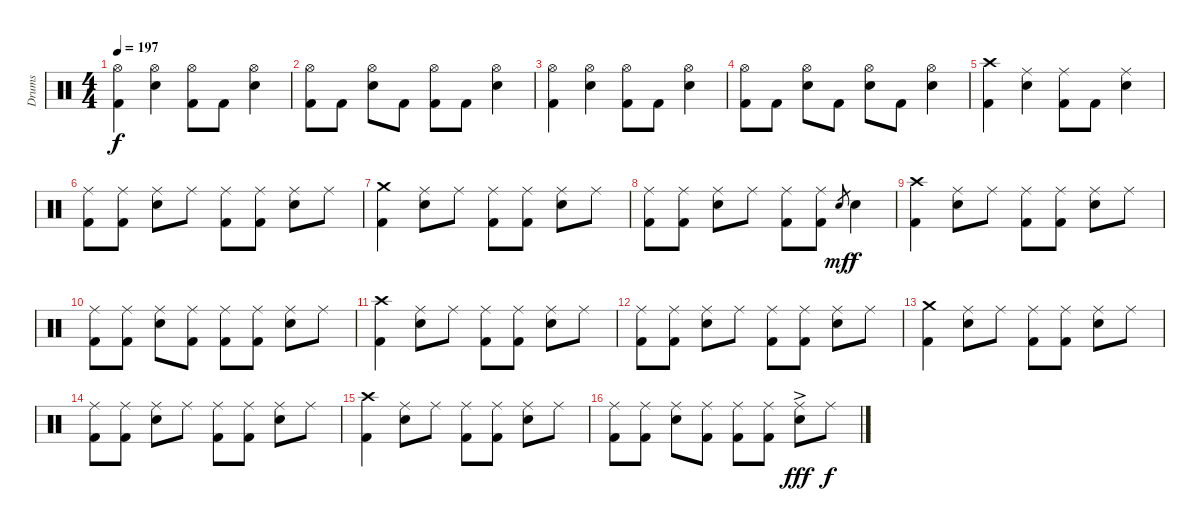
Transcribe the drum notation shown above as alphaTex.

\track ("Drums" "Drums") {instrument percussion}
\staff {score}
\articulation defaults
\ts (4 4)
\tempo 197
\clef neutral
\ks c
("Hi-Hat (open)" "Kick (hit) 2").4{dy f} ("Hi-Hat (open)" "Electric Snare (hit)").4 ("Hi-Hat (open)" "Kick (hit) 2").8 "Kick (hit) 2".8 ("Hi-Hat (open)" "Electric Snare (hit)").4 |
("Hi-Hat (open)" "Kick (hit) 2").8 "Kick (hit) 2".8 ("Hi-Hat (open)" "Electric Snare (hit)").8 "Kick (hit) 2".8 ("Hi-Hat (open)" "Kick (hit) 2").8 "Kick (hit) 2".8 ("Hi-Hat (open)" "Electric Snare (hit)").4 |
("Hi-Hat (open)" "Kick (hit) 2").4 ("Hi-Hat (open)" "Electric Snare (hit)").4 ("Hi-Hat (open)" "Kick (hit) 2").8 "Kick (hit) 2".8 ("Hi-Hat (open)" "Electric Snare (hit)").4 |
("Hi-Hat (open)" "Kick (hit) 2").8 "Kick (hit) 2".8 ("Hi-Hat (open)" "Electric Snare (hit)").8 "Kick (hit) 2".8 ("Hi-Hat (open)" "Electric Snare (hit)").8 "Kick (hit) 2".8 ("Hi-Hat (open)" "Electric Snare (hit)").4 |
("Crash high (hit)" "Kick (hit) 2").4 ("Ride (middle)" "Electric Snare (hit)").4 ("Ride (middle)" "Kick (hit) 2").8 "Kick (hit) 2".8 ("Ride (middle)" "Electric Snare (hit)").4 |
("Ride (middle)" "Kick (hit) 2").8 ("Ride (middle)" "Kick (hit) 2").8 ("Ride (middle)" "Electric Snare (hit)").8 "Ride (middle)".8 ("Ride (middle)" "Kick (hit) 2").8 ("Ride (middle)" "Kick (hit) 2").8 ("Ride (middle)" "Electric Snare (hit)").8 "Ride (middle)".8 |
("Crash medium (hit)" "Kick (hit) 2").4 ("Ride (middle)" "Electric Snare (hit)").8 "Ride (middle)".8 ("Ride (middle)" "Kick (hit) 2").8 ("Ride (middle)" "Kick (hit) 2").8 ("Ride (middle)" "Electric Snare (hit)").8 "Ride (middle)".8 |
("Ride (middle)" "Kick (hit) 2").8 ("Ride (middle)" "Kick (hit) 2").8 ("Ride (middle)" "Electric Snare (hit)").8 "Ride (middle)".8 ("Ride (middle)" "Kick (hit) 2").8 ("Ride (middle)" "Kick (hit) 2").8 "Electric Snare (hit)".8{gr dy mf} "Electric Snare (hit)".4{dy f} |
("Crash high (hit)" "Kick (hit) 2").4 ("Ride (middle)" "Electric Snare (hit)").8 "Ride (middle)".8 ("Ride (middle)" "Kick (hit) 2").8 ("Ride (middle)" "Kick (hit) 2").8 ("Ride (middle)" "Electric Snare (hit)").8 "Ride (middle)".8 |
("Ride (middle)" "Kick (hit) 2").8 ("Ride (middle)" "Kick (hit) 2").8 ("Ride (middle)" "Electric Snare (hit)").8 ("Ride (middle)" "Kick (hit) 2").8 ("Ride (middle)" "Kick (hit) 2").8 ("Ride (middle)" "Kick (hit) 2").8 ("Ride (middle)" "Electric Snare (hit)").8 "Ride (middle)".8 |
("Crash high (hit)" "Kick (hit) 2").4 ("Ride (middle)" "Electric Snare (hit)").8 "Ride (middle)".8 ("Ride (middle)" "Kick (hit) 2").8 ("Ride (middle)" "Kick (hit) 2").8 ("Ride (middle)" "Electric Snare (hit)").8 "Ride (middle)".8 |
("Ride (middle)" "Kick (hit) 2").8 ("Ride (middle)" "Kick (hit) 2").8 ("Ride (middle)" "Electric Snare (hit)").8 "Ride (middle)".8 ("Ride (middle)" "Kick (hit) 2").8 ("Ride (middle)" "Kick (hit) 2").8 ("Ride (middle)" "Electric Snare (hit)").8 "Ride (middle)".8 |
("Crash medium (hit)" "Kick (hit) 2").4 ("Ride (middle)" "Electric Snare (hit)").8 "Ride (middle)".8 ("Ride (middle)" "Kick (hit) 2").8 ("Ride (middle)" "Kick (hit) 2").8 ("Ride (middle)" "Electric Snare (hit)").8 "Ride (middle)".8 |
("Ride (middle)" "Kick (hit) 2").8 ("Ride (middle)" "Kick (hit) 2").8 ("Ride (middle)" "Electric Snare (hit)").8 "Ride (middle)".8 ("Ride (middle)" "Kick (hit) 2").8 ("Ride (middle)" "Kick (hit) 2").8 ("Ride (middle)" "Electric Snare (hit)").8 "Ride (middle)".8 |
("Crash high (hit)" "Kick (hit) 2").4 ("Ride (middle)" "Electric Snare (hit)").8 "Ride (middle)".8 ("Ride (middle)" "Kick (hit) 2").8 ("Ride (middle)" "Kick (hit) 2").8 ("Ride (middle)" "Electric Snare (hit)").8 "Ride (middle)".8 |
("Ride (middle)" "Kick (hit) 2").8 ("Ride (middle)" "Kick (hit) 2").8 ("Ride (middle)" "Electric Snare (hit)").8 ("Ride (middle)" "Kick (hit) 2").8 ("Ride (middle)" "Kick (hit) 2").8 ("Ride (middle)" "Kick (hit) 2").8 ("Ride (middle)"{ac} "Electric Snare (hit)").8{dy fff} "Ride (middle)".8{dy f}
